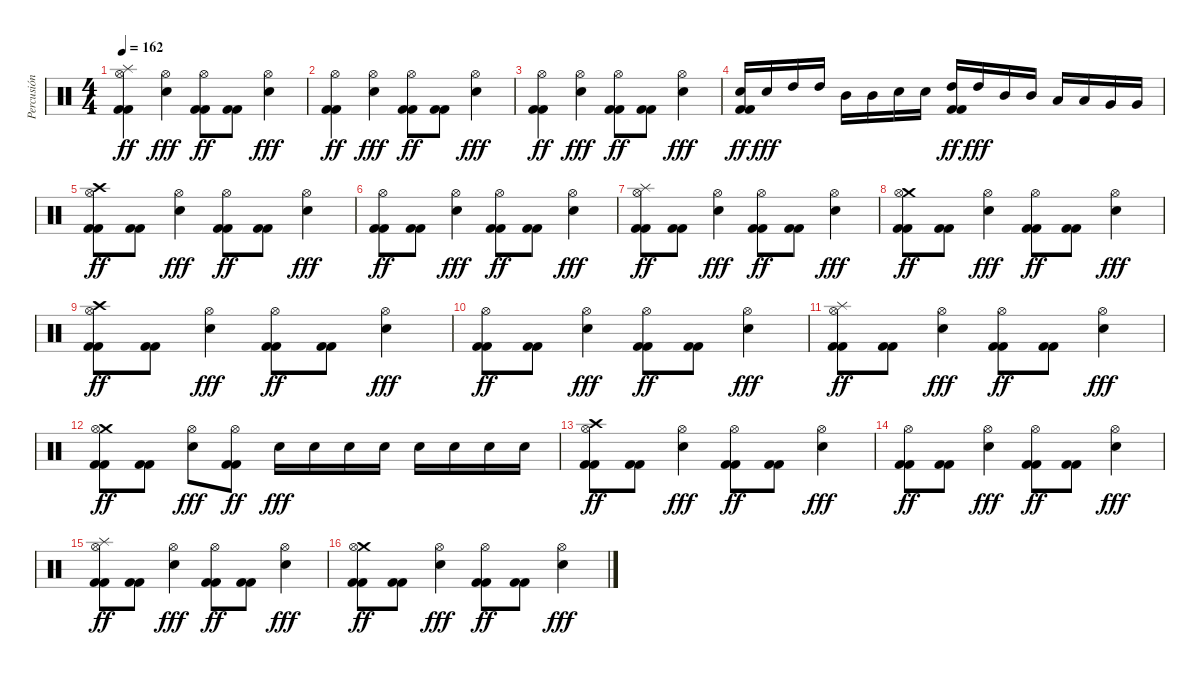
\track ("Percusión" "Percusión") {instrument percussion}
\staff {score}
\articulation defaults
\ts (4 4)
\tempo 162
\clef neutral
\ks c
("Splash (hit)" "Hi-Hat (open)" "Kick (hit) 2" "Kick (hit) 2").4{dy ff} ("Hi-Hat (open)" "Snare (hit) 2").4{dy fff} ("Hi-Hat (open)" "Kick (hit) 2" "Kick (hit) 2").8{dy ff} ("Kick (hit) 2" "Kick (hit) 2").8 ("Hi-Hat (open)" "Snare (hit) 2").4{dy fff} |
("Hi-Hat (open)" "Kick (hit) 2" "Kick (hit) 2").4{dy ff} ("Hi-Hat (open)" "Snare (hit) 2").4{dy fff} ("Hi-Hat (open)" "Kick (hit) 2" "Kick (hit) 2").8{dy ff} ("Kick (hit) 2" "Kick (hit) 2").8 ("Hi-Hat (open)" "Snare (hit) 2").4{dy fff} |
("Hi-Hat (open)" "Kick (hit) 2" "Kick (hit) 2").4{dy ff} ("Hi-Hat (open)" "Snare (hit) 2").4{dy fff} ("Hi-Hat (open)" "Kick (hit) 2" "Kick (hit) 2").8{dy ff} ("Kick (hit) 2" "Kick (hit) 2").8 ("Hi-Hat (open)" "Snare (hit) 2").4{dy fff} |
("Snare (hit) 2" "Kick (hit) 2" "Kick (hit) 2").16{dy ff} "Snare (hit) 2".16{dy fff} "High Tom (hit)".16 "High Tom (hit)".16 "Mid Tom (hit)".16 "Mid Tom (hit)".16 "Snare (hit) 2".16 "Snare (hit) 2".16 ("High Tom (hit)" "Kick (hit) 2" "Kick (hit) 2").16{dy ff} "High Tom (hit)".16{dy fff} "Mid Tom (hit)".16 "Mid Tom (hit)".16 "Low Tom (hit)".16 "Low Tom (hit)".16 "Very Low Tom (hit)".16 "Very Low Tom (hit)".16 |
("Crash high (hit)" "Hi-Hat (open)" "Kick (hit) 2" "Kick (hit) 2").8{dy ff} ("Kick (hit) 2" "Kick (hit) 2").8 ("Hi-Hat (open)" "Snare (hit) 2").4{dy fff} ("Hi-Hat (open)" "Kick (hit) 2" "Kick (hit) 2").8{dy ff} ("Kick (hit) 2" "Kick (hit) 2").8 ("Hi-Hat (open)" "Snare (hit) 2").4{dy fff} |
("Hi-Hat (open)" "Kick (hit) 2" "Kick (hit) 2").8{dy ff} ("Kick (hit) 2" "Kick (hit) 2").8 ("Hi-Hat (open)" "Snare (hit) 2").4{dy fff} ("Hi-Hat (open)" "Kick (hit) 2" "Kick (hit) 2").8{dy ff} ("Kick (hit) 2" "Kick (hit) 2").8 ("Hi-Hat (open)" "Snare (hit) 2").4{dy fff} |
("Splash (hit)" "Hi-Hat (open)" "Kick (hit) 2" "Kick (hit) 2").8{dy ff} ("Kick (hit) 2" "Kick (hit) 2").8 ("Hi-Hat (open)" "Snare (hit) 2").4{dy fff} ("Hi-Hat (open)" "Kick (hit) 2" "Kick (hit) 2").8{dy ff} ("Kick (hit) 2" "Kick (hit) 2").8 ("Hi-Hat (open)" "Snare (hit) 2").4{dy fff} |
("Crash medium (hit)" "Hi-Hat (open)" "Kick (hit) 2" "Kick (hit) 2").8{dy ff} ("Kick (hit) 2" "Kick (hit) 2").8 ("Hi-Hat (open)" "Snare (hit) 2").4{dy fff} ("Hi-Hat (open)" "Kick (hit) 2" "Kick (hit) 2").8{dy ff} ("Kick (hit) 2" "Kick (hit) 2").8 ("Hi-Hat (open)" "Snare (hit) 2").4{dy fff} |
("Crash high (hit)" "Hi-Hat (open)" "Kick (hit) 2" "Kick (hit) 2").8{dy ff} ("Kick (hit) 2" "Kick (hit) 2").8 ("Hi-Hat (open)" "Snare (hit) 2").4{dy fff} ("Hi-Hat (open)" "Kick (hit) 2" "Kick (hit) 2").8{dy ff} ("Kick (hit) 2" "Kick (hit) 2").8 ("Hi-Hat (open)" "Snare (hit) 2").4{dy fff} |
("Hi-Hat (open)" "Kick (hit) 2" "Kick (hit) 2").8{dy ff} ("Kick (hit) 2" "Kick (hit) 2").8 ("Hi-Hat (open)" "Snare (hit) 2").4{dy fff} ("Hi-Hat (open)" "Kick (hit) 2" "Kick (hit) 2").8{dy ff} ("Kick (hit) 2" "Kick (hit) 2").8 ("Hi-Hat (open)" "Snare (hit) 2").4{dy fff} |
("Splash (hit)" "Hi-Hat (open)" "Kick (hit) 2" "Kick (hit) 2").8{dy ff} ("Kick (hit) 2" "Kick (hit) 2").8 ("Hi-Hat (open)" "Snare (hit) 2").4{dy fff} ("Hi-Hat (open)" "Kick (hit) 2" "Kick (hit) 2").8{dy ff} ("Kick (hit) 2" "Kick (hit) 2").8 ("Hi-Hat (open)" "Snare (hit) 2").4{dy fff} |
("Crash medium (hit)" "Hi-Hat (open)" "Kick (hit) 2" "Kick (hit) 2").8{dy ff} ("Kick (hit) 2" "Kick (hit) 2").8 ("Hi-Hat (open)" "Snare (hit) 2").8{dy fff} ("Hi-Hat (open)" "Kick (hit) 2" "Kick (hit) 2").8{dy ff} "Snare (hit) 2".16{dy fff} "Snare (hit) 2".16 "Snare (hit) 2".16 "Snare (hit) 2".16 "Snare (hit) 2".16 "Snare (hit) 2".16 "Snare (hit) 2".16 "Snare (hit) 2".16 |
("Crash high (hit)" "Hi-Hat (open)" "Kick (hit) 2" "Kick (hit) 2").8{dy ff} ("Kick (hit) 2" "Kick (hit) 2").8 ("Hi-Hat (open)" "Snare (hit) 2").4{dy fff} ("Hi-Hat (open)" "Kick (hit) 2" "Kick (hit) 2").8{dy ff} ("Kick (hit) 2" "Kick (hit) 2").8 ("Hi-Hat (open)" "Snare (hit) 2").4{dy fff} |
("Hi-Hat (open)" "Kick (hit) 2" "Kick (hit) 2").8{dy ff} ("Kick (hit) 2" "Kick (hit) 2").8 ("Hi-Hat (open)" "Snare (hit) 2").4{dy fff} ("Hi-Hat (open)" "Kick (hit) 2" "Kick (hit) 2").8{dy ff} ("Kick (hit) 2" "Kick (hit) 2").8 ("Hi-Hat (open)" "Snare (hit) 2").4{dy fff} |
("Splash (hit)" "Hi-Hat (open)" "Kick (hit) 2" "Kick (hit) 2").8{dy ff} ("Kick (hit) 2" "Kick (hit) 2").8 ("Hi-Hat (open)" "Snare (hit) 2").4{dy fff} ("Hi-Hat (open)" "Kick (hit) 2" "Kick (hit) 2").8{dy ff} ("Kick (hit) 2" "Kick (hit) 2").8 ("Hi-Hat (open)" "Snare (hit) 2").4{dy fff} |
("Crash medium (hit)" "Hi-Hat (open)" "Kick (hit) 2" "Kick (hit) 2").8{dy ff} ("Kick (hit) 2" "Kick (hit) 2").8 ("Hi-Hat (open)" "Snare (hit) 2").4{dy fff} ("Hi-Hat (open)" "Kick (hit) 2" "Kick (hit) 2").8{dy ff} ("Kick (hit) 2" "Kick (hit) 2").8 ("Hi-Hat (open)" "Snare (hit) 2").4{dy fff}
